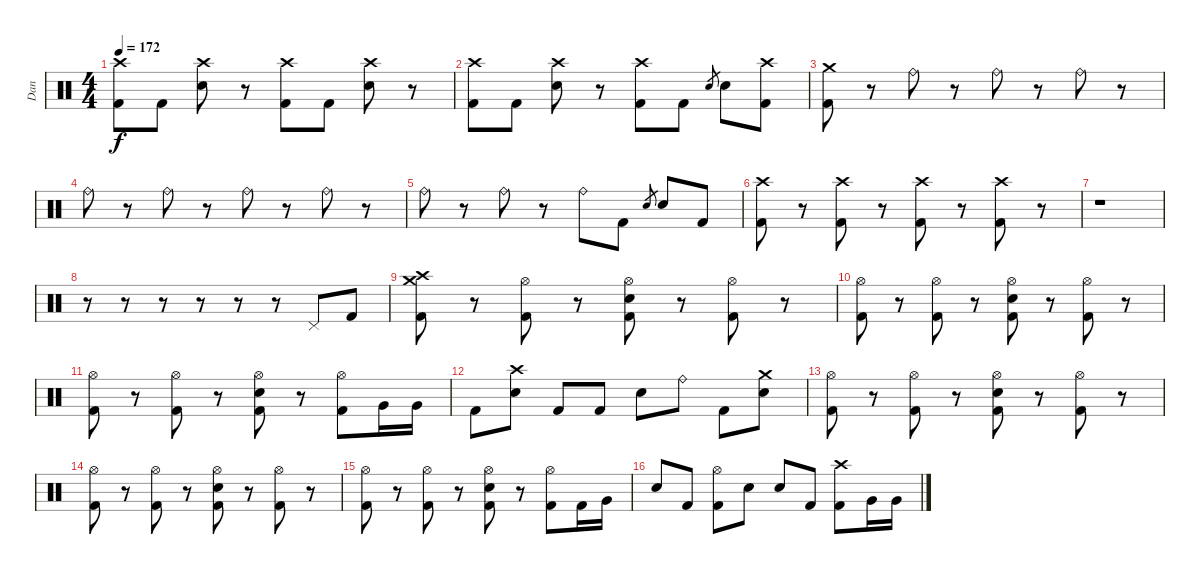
\track ("Dan" "Dan") {instrument percussion}
\staff {score}
\articulation defaults
\ts (4 4)
\tempo 172
\clef neutral
\ks c
("Crash high (hit)" "Kick (hit) 2").8{dy f} "Kick (hit) 2".8 ("Crash high (hit)" "Electric Snare (hit)").8 r.8 ("Crash high (hit)" "Kick (hit) 2").8 "Kick (hit) 2".8 ("Crash high (hit)" "Electric Snare (hit)").8 r.8 |
("Crash high (hit)" "Kick (hit) 2").8 "Kick (hit) 2".8 ("Crash high (hit)" "Electric Snare (hit)").8 r.8 ("Crash high (hit)" "Kick (hit) 2").8 "Kick (hit) 2".8 "Electric Snare (hit)".8{gr} "Electric Snare (hit)".8 ("Crash high (hit)" "Kick (hit) 2").8 |
("Crash medium (hit)" "Kick (hit) 2").8 r.8 "Ride (bell)".8 r.8 "Ride (bell)".8 r.8 "Ride (bell)".8 r.8 |
"Ride (bell)".8 r.8 "Ride (bell)".8 r.8 "Ride (bell)".8 r.8 "Ride (bell)".8 r.8 |
"Ride (bell)".8 r.8 "Ride (bell)".8 r.8 "Ride (bell)".8 "Kick (hit) 2".8 "Electric Snare (hit)".8{gr} "Electric Snare (hit)".8 "Kick (hit) 2".8 |
("Crash high (hit)" "Kick (hit) 2").8 r.8 ("Crash high (hit)" "Kick (hit) 2").8 r.8 ("Crash high (hit)" "Kick (hit) 2").8 r.8 ("Crash high (hit)" "Kick (hit) 2").8 r.8 |
r.1 |
r.8 r.8 r.8 r.8 r.8 r.8 "Pedal Hi-Hat (hit)".8 "Kick (hit) 2".8 |
("Crash high (hit)" "Crash medium (hit)" "Kick (hit) 2").8 r.8 ("Hi-Hat (open)" "Kick (hit) 2").8 r.8 ("Hi-Hat (open)" "Electric Snare (hit)" "Kick (hit) 2").8 r.8 ("Hi-Hat (open)" "Kick (hit) 2").8 r.8 |
("Hi-Hat (open)" "Kick (hit) 2").8 r.8 ("Hi-Hat (open)" "Kick (hit) 2").8 r.8 ("Hi-Hat (open)" "Electric Snare (hit)" "Kick (hit) 2").8 r.8 ("Hi-Hat (open)" "Kick (hit) 2").8 r.8 |
("Hi-Hat (open)" "Kick (hit) 2").8 r.8 ("Hi-Hat (open)" "Kick (hit) 2").8 r.8 ("Hi-Hat (open)" "Electric Snare (hit)" "Kick (hit) 2").8 r.8 ("Hi-Hat (open)" "Kick (hit) 2").8 "Very Low Tom (hit)".16 "Very Low Tom (hit)".16 |
"Kick (hit) 2".8 ("Crash high (hit)" "Electric Snare (hit)").8 "Kick (hit) 2".8 "Kick (hit) 2".8 "Electric Snare (hit)".8 "Ride (bell)".8 "Kick (hit) 2".8 ("Crash medium (hit)" "Electric Snare (hit)").8 |
("Hi-Hat (open)" "Kick (hit) 2").8 r.8 ("Hi-Hat (open)" "Kick (hit) 2").8 r.8 ("Hi-Hat (open)" "Electric Snare (hit)" "Kick (hit) 2").8 r.8 ("Hi-Hat (open)" "Kick (hit) 2").8 r.8 |
("Hi-Hat (open)" "Kick (hit) 2").8 r.8 ("Hi-Hat (open)" "Kick (hit) 2").8 r.8 ("Hi-Hat (open)" "Electric Snare (hit)" "Kick (hit) 2").8 r.8 ("Hi-Hat (open)" "Kick (hit) 2").8 r.8 |
("Hi-Hat (open)" "Kick (hit) 2").8 r.8 ("Hi-Hat (open)" "Kick (hit) 2").8 r.8 ("Hi-Hat (open)" "Electric Snare (hit)" "Kick (hit) 2").8 r.8 ("Hi-Hat (open)" "Kick (hit) 2").8 "Kick (hit) 2".16 "Very Low Tom (hit)".16 |
"Electric Snare (hit)".8 "Kick (hit) 2".8 ("Hi-Hat (open)" "Kick (hit) 2").8 "Electric Snare (hit)".8 "Electric Snare (hit)".8 "Kick (hit) 2".8 ("Crash high (hit)" "Kick (hit) 2").8 "Very Low Tom (hit)".16 "Very Low Tom (hit)".16
